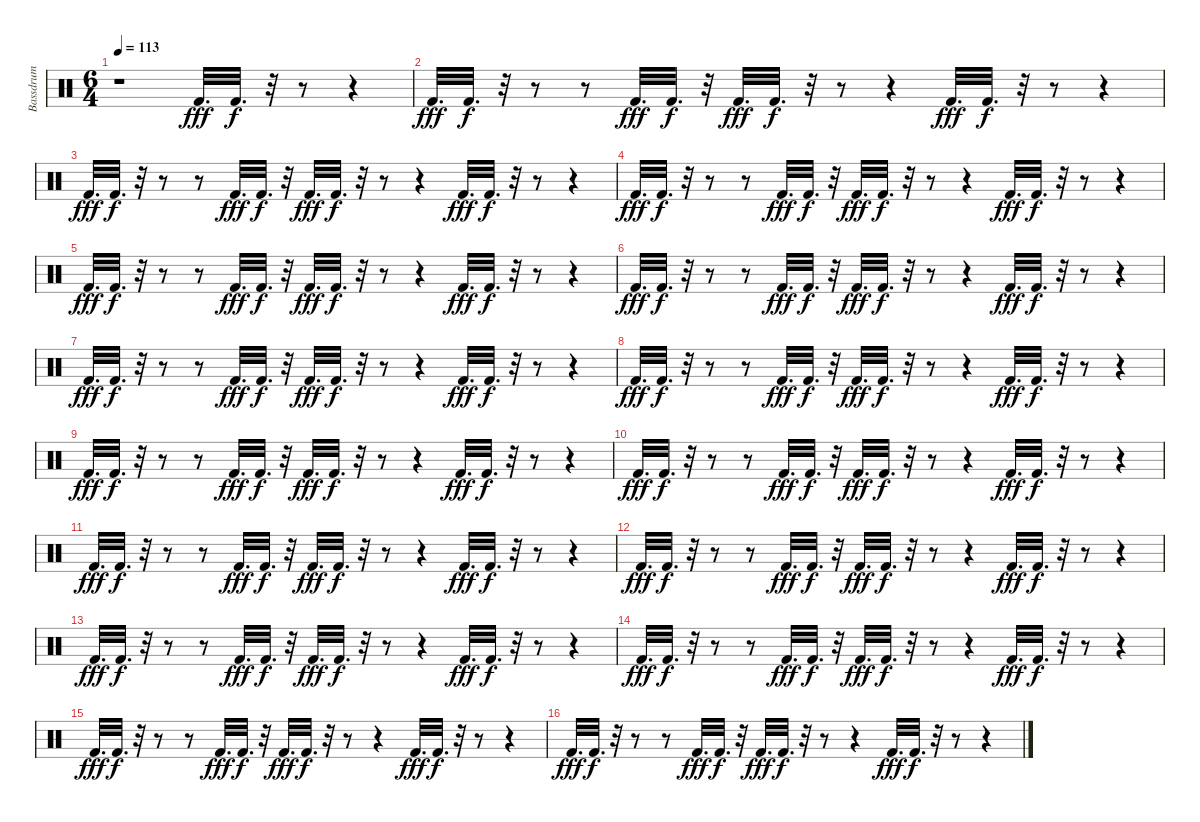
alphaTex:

\track ("Bassdrum" "Bassdrum") {instrument percussion}
\staff {score}
\articulation defaults
\ts (6 4)
\tempo 113
\clef neutral
\ks c
r.1{dy fff} "Kick (hit) 2".32{d} "Kick (hit) 2".32{d dy f} r.32 r.8 r.4 |
"Kick (hit) 2".32{d dy fff} "Kick (hit) 2".32{d dy f} r.32 r.8 r.8 "Kick (hit) 2".32{d dy fff} "Kick (hit) 2".32{d dy f} r.32 "Kick (hit) 2".32{d dy fff} "Kick (hit) 2".32{d dy f} r.32 r.8 r.4 "Kick (hit) 2".32{d dy fff} "Kick (hit) 2".32{d dy f} r.32 r.8 r.4 |
"Kick (hit) 2".32{d dy fff} "Kick (hit) 2".32{d dy f} r.32 r.8 r.8 "Kick (hit) 2".32{d dy fff} "Kick (hit) 2".32{d dy f} r.32 "Kick (hit) 2".32{d dy fff} "Kick (hit) 2".32{d dy f} r.32 r.8 r.4 "Kick (hit) 2".32{d dy fff} "Kick (hit) 2".32{d dy f} r.32 r.8 r.4 |
"Kick (hit) 2".32{d dy fff} "Kick (hit) 2".32{d dy f} r.32 r.8 r.8 "Kick (hit) 2".32{d dy fff} "Kick (hit) 2".32{d dy f} r.32 "Kick (hit) 2".32{d dy fff} "Kick (hit) 2".32{d dy f} r.32 r.8 r.4 "Kick (hit) 2".32{d dy fff} "Kick (hit) 2".32{d dy f} r.32 r.8 r.4 |
"Kick (hit) 2".32{d dy fff} "Kick (hit) 2".32{d dy f} r.32 r.8 r.8 "Kick (hit) 2".32{d dy fff} "Kick (hit) 2".32{d dy f} r.32 "Kick (hit) 2".32{d dy fff} "Kick (hit) 2".32{d dy f} r.32 r.8 r.4 "Kick (hit) 2".32{d dy fff} "Kick (hit) 2".32{d dy f} r.32 r.8 r.4 |
"Kick (hit) 2".32{d dy fff} "Kick (hit) 2".32{d dy f} r.32 r.8 r.8 "Kick (hit) 2".32{d dy fff} "Kick (hit) 2".32{d dy f} r.32 "Kick (hit) 2".32{d dy fff} "Kick (hit) 2".32{d dy f} r.32 r.8 r.4 "Kick (hit) 2".32{d dy fff} "Kick (hit) 2".32{d dy f} r.32 r.8 r.4 |
"Kick (hit) 2".32{d dy fff} "Kick (hit) 2".32{d dy f} r.32 r.8 r.8 "Kick (hit) 2".32{d dy fff} "Kick (hit) 2".32{d dy f} r.32 "Kick (hit) 2".32{d dy fff} "Kick (hit) 2".32{d dy f} r.32 r.8 r.4 "Kick (hit) 2".32{d dy fff} "Kick (hit) 2".32{d dy f} r.32 r.8 r.4 |
"Kick (hit) 2".32{d dy fff} "Kick (hit) 2".32{d dy f} r.32 r.8 r.8 "Kick (hit) 2".32{d dy fff} "Kick (hit) 2".32{d dy f} r.32 "Kick (hit) 2".32{d dy fff} "Kick (hit) 2".32{d dy f} r.32 r.8 r.4 "Kick (hit) 2".32{d dy fff} "Kick (hit) 2".32{d dy f} r.32 r.8 r.4 |
"Kick (hit) 2".32{d dy fff} "Kick (hit) 2".32{d dy f} r.32 r.8 r.8 "Kick (hit) 2".32{d dy fff} "Kick (hit) 2".32{d dy f} r.32 "Kick (hit) 2".32{d dy fff} "Kick (hit) 2".32{d dy f} r.32 r.8 r.4 "Kick (hit) 2".32{d dy fff} "Kick (hit) 2".32{d dy f} r.32 r.8 r.4 |
"Kick (hit) 2".32{d dy fff} "Kick (hit) 2".32{d dy f} r.32 r.8 r.8 "Kick (hit) 2".32{d dy fff} "Kick (hit) 2".32{d dy f} r.32 "Kick (hit) 2".32{d dy fff} "Kick (hit) 2".32{d dy f} r.32 r.8 r.4 "Kick (hit) 2".32{d dy fff} "Kick (hit) 2".32{d dy f} r.32 r.8 r.4 |
"Kick (hit) 2".32{d dy fff} "Kick (hit) 2".32{d dy f} r.32 r.8 r.8 "Kick (hit) 2".32{d dy fff} "Kick (hit) 2".32{d dy f} r.32 "Kick (hit) 2".32{d dy fff} "Kick (hit) 2".32{d dy f} r.32 r.8 r.4 "Kick (hit) 2".32{d dy fff} "Kick (hit) 2".32{d dy f} r.32 r.8 r.4 |
"Kick (hit) 2".32{d dy fff} "Kick (hit) 2".32{d dy f} r.32 r.8 r.8 "Kick (hit) 2".32{d dy fff} "Kick (hit) 2".32{d dy f} r.32 "Kick (hit) 2".32{d dy fff} "Kick (hit) 2".32{d dy f} r.32 r.8 r.4 "Kick (hit) 2".32{d dy fff} "Kick (hit) 2".32{d dy f} r.32 r.8 r.4 |
"Kick (hit) 2".32{d dy fff} "Kick (hit) 2".32{d dy f} r.32 r.8 r.8 "Kick (hit) 2".32{d dy fff} "Kick (hit) 2".32{d dy f} r.32 "Kick (hit) 2".32{d dy fff} "Kick (hit) 2".32{d dy f} r.32 r.8 r.4 "Kick (hit) 2".32{d dy fff} "Kick (hit) 2".32{d dy f} r.32 r.8 r.4 |
"Kick (hit) 2".32{d dy fff} "Kick (hit) 2".32{d dy f} r.32 r.8 r.8 "Kick (hit) 2".32{d dy fff} "Kick (hit) 2".32{d dy f} r.32 "Kick (hit) 2".32{d dy fff} "Kick (hit) 2".32{d dy f} r.32 r.8 r.4 "Kick (hit) 2".32{d dy fff} "Kick (hit) 2".32{d dy f} r.32 r.8 r.4 |
"Kick (hit) 2".32{d dy fff} "Kick (hit) 2".32{d dy f} r.32 r.8 r.8 "Kick (hit) 2".32{d dy fff} "Kick (hit) 2".32{d dy f} r.32 "Kick (hit) 2".32{d dy fff} "Kick (hit) 2".32{d dy f} r.32 r.8 r.4 "Kick (hit) 2".32{d dy fff} "Kick (hit) 2".32{d dy f} r.32 r.8 r.4 |
"Kick (hit) 2".32{d dy fff} "Kick (hit) 2".32{d dy f} r.32 r.8 r.8 "Kick (hit) 2".32{d dy fff} "Kick (hit) 2".32{d dy f} r.32 "Kick (hit) 2".32{d dy fff} "Kick (hit) 2".32{d dy f} r.32 r.8 r.4 "Kick (hit) 2".32{d dy fff} "Kick (hit) 2".32{d dy f} r.32 r.8 r.4
